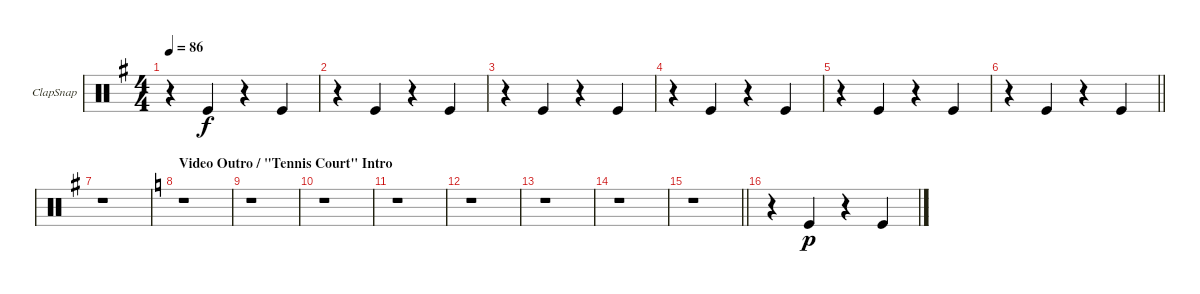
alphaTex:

\defaultSystemsLayout 4
\bracketExtendMode groupsimilarinstruments
\firstSystemTrackNameOrientation horizontal
\otherSystemsTrackNameOrientation horizontal
\track ("hand clap / snap" "ClapSnap") {instrument percussion}
\staff {score}
\articulation defaults
\ts (4 4)
\tempo 86
\clef neutral
\ks g
r.4{dy f} "Kick (hit)".4 r.4 "Kick (hit)".4 |
r.4 "Kick (hit)".4 r.4 "Kick (hit)".4 |
r.4 "Kick (hit)".4 r.4 "Kick (hit)".4 |
r.4 "Kick (hit)".4 r.4 "Kick (hit)".4 |
r.4 "Kick (hit)".4 r.4 "Kick (hit)".4 |
\barLineRight lightlight
r.4 "Kick (hit)".4 r.4 "Kick (hit)".4 |
r.1 |
\section ("" "Video Outro / \"Tennis Court\" Intro")
\ks c
r.1 |
r.1 |
r.1 |
r.1 |
r.1 |
r.1 |
r.1 |
\barLineRight lightlight
r.1 |
r.4 "Kick (hit)".4{dy p} r.4 "Kick (hit)".4
